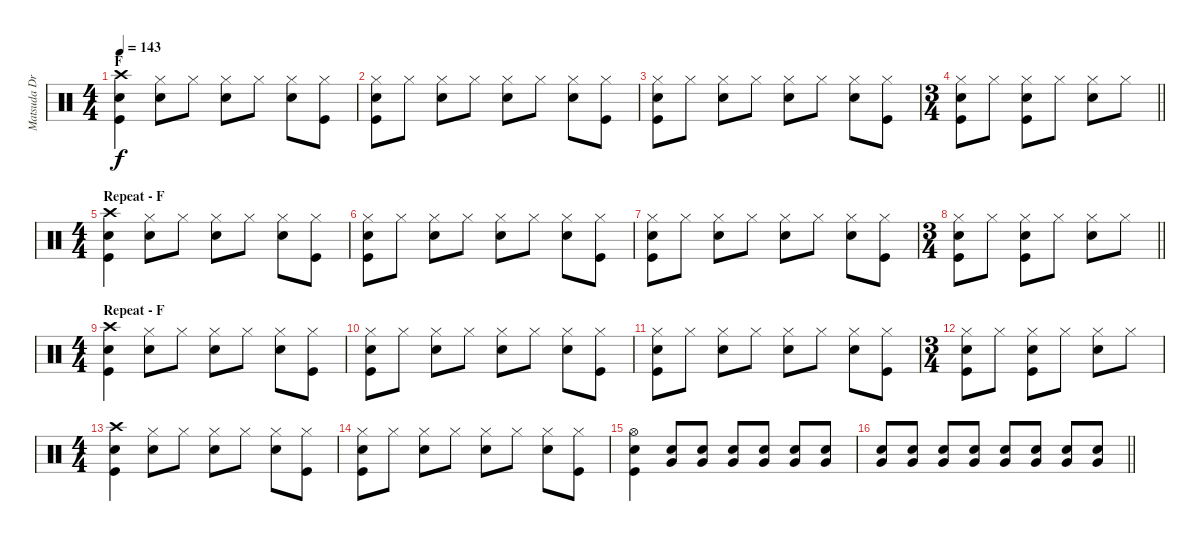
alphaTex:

\track ("Matsuda Drums" "Matsuda Dr") {instrument percussion}
\staff {score}
\articulation defaults
\ts (4 4)
\section ("" "F")
\tempo 143
\clef neutral
\ks c
("Crash high (hit)" "Snare (hit) 2" "Kick (hit)").4{dy f} ("Hi-Hat (closed)" "Snare (hit) 2").8 "Hi-Hat (closed)".8 ("Hi-Hat (closed)" "Snare (hit) 2").8 "Hi-Hat (closed)".8 ("Hi-Hat (closed)" "Snare (hit) 2").8 ("Hi-Hat (closed)" "Kick (hit)").8 |
("Hi-Hat (closed)" "Snare (hit) 2" "Kick (hit)").8 "Hi-Hat (closed)".8 ("Hi-Hat (closed)" "Snare (hit) 2").8 "Hi-Hat (closed)".8 ("Hi-Hat (closed)" "Snare (hit) 2").8 "Hi-Hat (closed)".8 ("Hi-Hat (closed)" "Snare (hit) 2").8 ("Hi-Hat (closed)" "Kick (hit)").8 |
("Hi-Hat (closed)" "Snare (hit) 2" "Kick (hit)").8 "Hi-Hat (closed)".8 ("Hi-Hat (closed)" "Snare (hit) 2").8 "Hi-Hat (closed)".8 ("Hi-Hat (closed)" "Snare (hit) 2").8 "Hi-Hat (closed)".8 ("Hi-Hat (closed)" "Snare (hit) 2").8 ("Hi-Hat (closed)" "Kick (hit)").8 |
\ts (3 4)
\barLineRight lightlight
("Hi-Hat (closed)" "Snare (hit) 2" "Kick (hit)").8 "Hi-Hat (closed)".8 ("Hi-Hat (closed)" "Snare (hit) 2" "Kick (hit)").8 "Hi-Hat (closed)".8 ("Hi-Hat (closed)" "Snare (hit) 2").8 "Hi-Hat (closed)".8 |
\ts (4 4)
\section ("" "Repeat - F")
("Crash high (hit)" "Snare (hit) 2" "Kick (hit)").4 ("Hi-Hat (closed)" "Snare (hit) 2").8 "Hi-Hat (closed)".8 ("Hi-Hat (closed)" "Snare (hit) 2").8 "Hi-Hat (closed)".8 ("Hi-Hat (closed)" "Snare (hit) 2").8 ("Hi-Hat (closed)" "Kick (hit)").8 |
("Hi-Hat (closed)" "Snare (hit) 2" "Kick (hit)").8 "Hi-Hat (closed)".8 ("Hi-Hat (closed)" "Snare (hit) 2").8 "Hi-Hat (closed)".8 ("Hi-Hat (closed)" "Snare (hit) 2").8 "Hi-Hat (closed)".8 ("Hi-Hat (closed)" "Snare (hit) 2").8 ("Hi-Hat (closed)" "Kick (hit)").8 |
("Hi-Hat (closed)" "Snare (hit) 2" "Kick (hit)").8 "Hi-Hat (closed)".8 ("Hi-Hat (closed)" "Snare (hit) 2").8 "Hi-Hat (closed)".8 ("Hi-Hat (closed)" "Snare (hit) 2").8 "Hi-Hat (closed)".8 ("Hi-Hat (closed)" "Snare (hit) 2").8 ("Hi-Hat (closed)" "Kick (hit)").8 |
\ts (3 4)
\barLineRight lightlight
("Hi-Hat (closed)" "Snare (hit) 2" "Kick (hit)").8 "Hi-Hat (closed)".8 ("Hi-Hat (closed)" "Snare (hit) 2" "Kick (hit)").8 "Hi-Hat (closed)".8 ("Hi-Hat (closed)" "Snare (hit) 2").8 "Hi-Hat (closed)".8 |
\ts (4 4)
\section ("" "Repeat - F")
("Crash high (hit)" "Snare (hit) 2" "Kick (hit)").4 ("Hi-Hat (closed)" "Snare (hit) 2").8 "Hi-Hat (closed)".8 ("Hi-Hat (closed)" "Snare (hit) 2").8 "Hi-Hat (closed)".8 ("Hi-Hat (closed)" "Snare (hit) 2").8 ("Hi-Hat (closed)" "Kick (hit)").8 |
("Hi-Hat (closed)" "Snare (hit) 2" "Kick (hit)").8 "Hi-Hat (closed)".8 ("Hi-Hat (closed)" "Snare (hit) 2").8 "Hi-Hat (closed)".8 ("Hi-Hat (closed)" "Snare (hit) 2").8 "Hi-Hat (closed)".8 ("Hi-Hat (closed)" "Snare (hit) 2").8 ("Hi-Hat (closed)" "Kick (hit)").8 |
("Hi-Hat (closed)" "Snare (hit) 2" "Kick (hit)").8 "Hi-Hat (closed)".8 ("Hi-Hat (closed)" "Snare (hit) 2").8 "Hi-Hat (closed)".8 ("Hi-Hat (closed)" "Snare (hit) 2").8 "Hi-Hat (closed)".8 ("Hi-Hat (closed)" "Snare (hit) 2").8 ("Hi-Hat (closed)" "Kick (hit)").8 |
\ts (3 4)
("Hi-Hat (closed)" "Snare (hit) 2" "Kick (hit)").8 "Hi-Hat (closed)".8 ("Hi-Hat (closed)" "Snare (hit) 2" "Kick (hit)").8 "Hi-Hat (closed)".8 ("Hi-Hat (closed)" "Snare (hit) 2").8 "Hi-Hat (closed)".8 |
\ts (4 4)
("Crash high (hit)" "Snare (hit) 2" "Kick (hit)").4 ("Hi-Hat (closed)" "Snare (hit) 2").8 "Hi-Hat (closed)".8 ("Hi-Hat (closed)" "Snare (hit) 2").8 "Hi-Hat (closed)".8 ("Hi-Hat (closed)" "Snare (hit) 2").8 ("Hi-Hat (closed)" "Kick (hit)").8 |
("Hi-Hat (closed)" "Snare (hit) 2" "Kick (hit)").8 "Hi-Hat (closed)".8 ("Hi-Hat (closed)" "Snare (hit) 2").8 "Hi-Hat (closed)".8 ("Hi-Hat (closed)" "Snare (hit) 2").8 "Hi-Hat (closed)".8 ("Hi-Hat (closed)" "Snare (hit) 2").8 ("Hi-Hat (closed)" "Kick (hit)").8 |
("Hi-Hat (open)" "Snare (hit) 2" "Kick (hit)").4 ("Snare (hit) 2" "Very Low Tom (hit)").8 ("Snare (hit) 2" "Very Low Tom (hit)").8 ("Snare (hit) 2" "Very Low Tom (hit)").8 ("Snare (hit) 2" "Very Low Tom (hit)").8 ("Snare (hit) 2" "Very Low Tom (hit)").8 ("Snare (hit) 2" "Very Low Tom (hit)").8 |
\barLineRight lightlight
("Snare (hit) 2" "Very Low Tom (hit)").8 ("Snare (hit) 2" "Very Low Tom (hit)").8 ("Snare (hit) 2" "Very Low Tom (hit)").8 ("Snare (hit) 2" "Very Low Tom (hit)").8 ("Snare (hit) 2" "Very Low Tom (hit)").8 ("Snare (hit) 2" "Very Low Tom (hit)").8 ("Snare (hit) 2" "Very Low Tom (hit)").8 ("Snare (hit) 2" "Very Low Tom (hit)").8
